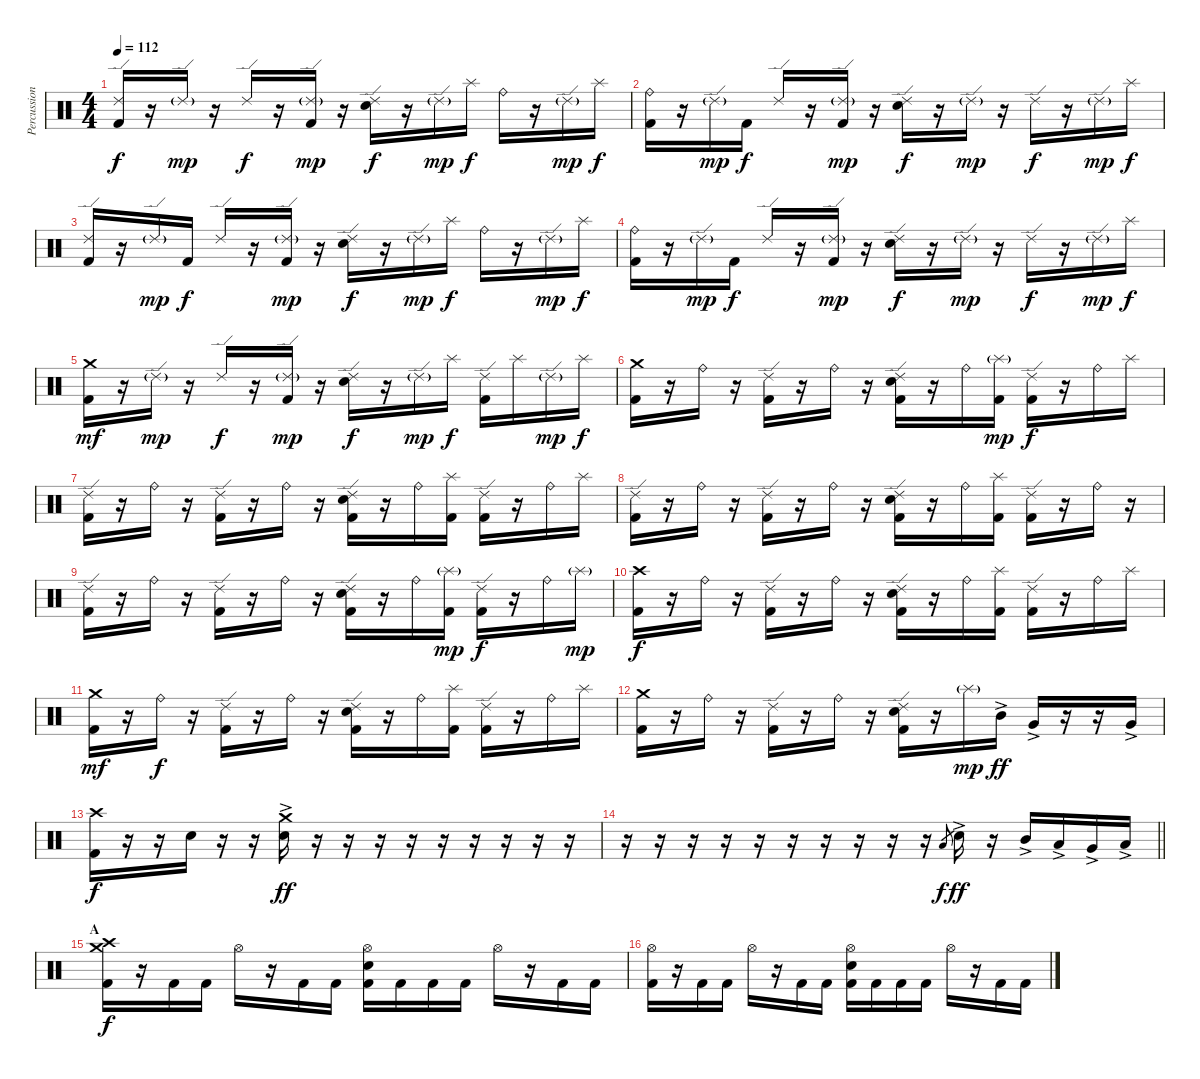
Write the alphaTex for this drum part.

\track ("Percussion" "Percussion") {instrument percussion}
\staff {score}
\articulation defaults
\ts (4 4)
\tempo 112
\clef neutral
\ks c
("Ride (edge) 2" "Kick (hit) 2").16{dy f} r.16 "Ride (edge) 2"{g}.16{dy mp} r.16 "Ride (edge) 2".16{dy f} r.16 ("Ride (edge) 2"{g} "Kick (hit) 2").16{dy mp} r.16 ("Ride (edge) 2" "Electric Snare (hit)").16{dy f} r.16 "Ride (edge) 2"{g}.16{dy mp} "Splash (hit)".16{dy f} "Ride (bell)".16 r.16 "Ride (edge) 2"{g}.16{dy mp} "Splash (hit)".16{dy f} |
("Ride (bell)" "Kick (hit) 2").16 r.16 "Ride (edge) 2"{g}.16{dy mp} "Kick (hit) 2".16{dy f} "Ride (edge) 2".16 r.16 ("Ride (edge) 2"{g} "Kick (hit) 2").16{dy mp} r.16 ("Ride (edge) 2" "Electric Snare (hit)").16{dy f} r.16 "Ride (edge) 2"{g}.16{dy mp} r.16 "Ride (edge) 2".16{dy f} r.16 "Ride (edge) 2"{g}.16{dy mp} "Splash (hit)".16{dy f} |
("Ride (edge) 2" "Kick (hit) 2").16 r.16 "Ride (edge) 2"{g}.16{dy mp} "Kick (hit) 2".16{dy f} "Ride (edge) 2".16 r.16 ("Ride (edge) 2"{g} "Kick (hit) 2").16{dy mp} r.16 ("Ride (edge) 2" "Electric Snare (hit)").16{dy f} r.16 "Ride (edge) 2"{g}.16{dy mp} "Splash (hit)".16{dy f} "Ride (bell)".16 r.16 "Ride (edge) 2"{g}.16{dy mp} "Splash (hit)".16{dy f} |
("Ride (bell)" "Kick (hit) 2").16 r.16 "Ride (edge) 2"{g}.16{dy mp} "Kick (hit) 2".16{dy f} "Ride (edge) 2".16 r.16 ("Ride (edge) 2"{g} "Kick (hit) 2").16{dy mp} r.16 ("Ride (edge) 2" "Electric Snare (hit)").16{dy f} r.16 "Ride (edge) 2"{g}.16{dy mp} r.16 "Ride (edge) 2".16{dy f} r.16 "Ride (edge) 2"{g}.16{dy mp} "Splash (hit)".16{dy f} |
("Crash medium (hit)" "Kick (hit) 2").16{dy mf} r.16 "Ride (edge) 2"{g}.16{dy mp} r.16 "Ride (edge) 2".16{dy f} r.16 ("Ride (edge) 2"{g} "Kick (hit) 2").16{dy mp} r.16 ("Ride (edge) 2" "Electric Snare (hit)").16{dy f} r.16 "Ride (edge) 2"{g}.16{dy mp} "Splash (hit)".16{dy f} ("Ride (edge) 2" "Kick (hit) 2").16 "Splash (hit)".16 "Ride (edge) 2"{g}.16{dy mp} "Splash (hit)".16{dy f} |
("Crash medium (hit)" "Kick (hit) 2").16 r.16 "Ride (bell)".16 r.16 ("Ride (edge) 2" "Kick (hit) 2").16 r.16 "Ride (bell)".16 r.16 ("Ride (edge) 2" "Electric Snare (hit)" "Kick (hit) 2").16 r.16 "Ride (bell)".16 ("Splash (hit)"{g} "Kick (hit) 2").16{dy mp} ("Ride (edge) 2" "Kick (hit) 2").16{dy f} r.16 "Ride (bell)".16 "Splash (hit)".16 |
("Ride (edge) 2" "Kick (hit) 2").16 r.16 "Ride (bell)".16 r.16 ("Ride (edge) 2" "Kick (hit) 2").16 r.16 "Ride (bell)".16 r.16 ("Ride (edge) 2" "Electric Snare (hit)" "Kick (hit) 2").16 r.16 "Ride (bell)".16 ("Splash (hit)" "Kick (hit) 2").16 ("Ride (edge) 2" "Kick (hit) 2").16 r.16 "Ride (bell)".16 "Splash (hit)".16 |
("Ride (edge) 2" "Kick (hit) 2").16 r.16 "Ride (bell)".16 r.16 ("Ride (edge) 2" "Kick (hit) 2").16 r.16 "Ride (bell)".16 r.16 ("Ride (edge) 2" "Electric Snare (hit)" "Kick (hit) 2").16 r.16 "Ride (bell)".16 ("Splash (hit)" "Kick (hit) 2").16 ("Ride (edge) 2" "Kick (hit) 2").16 r.16 "Ride (bell)".16 r.16 |
("Ride (edge) 2" "Kick (hit) 2").16 r.16 "Ride (bell)".16 r.16 ("Ride (edge) 2" "Kick (hit) 2").16 r.16 "Ride (bell)".16 r.16 ("Ride (edge) 2" "Electric Snare (hit)" "Kick (hit) 2").16 r.16 "Ride (bell)".16 ("Splash (hit)"{g} "Kick (hit) 2").16{dy mp} ("Ride (edge) 2" "Kick (hit) 2").16{dy f} r.16 "Ride (bell)".16 "Splash (hit)"{g}.16{dy mp} |
("Crash high (hit)" "Kick (hit) 2").16{dy f} r.16 "Ride (bell)".16 r.16 ("Ride (edge) 2" "Kick (hit) 2").16 r.16 "Ride (bell)".16 r.16 ("Ride (edge) 2" "Electric Snare (hit)" "Kick (hit) 2").16 r.16 "Ride (bell)".16 ("Splash (hit)" "Kick (hit) 2").16 ("Ride (edge) 2" "Kick (hit) 2").16 r.16 "Ride (bell)".16 "Splash (hit)".16 |
("Crash medium (hit)" "Kick (hit) 2").16{dy mf} r.16 "Ride (bell)".16{dy f} r.16 ("Ride (edge) 2" "Kick (hit) 2").16 r.16 "Ride (bell)".16 r.16 ("Ride (edge) 2" "Electric Snare (hit)" "Kick (hit) 2").16 r.16 "Ride (bell)".16 ("Splash (hit)" "Kick (hit) 2").16 ("Ride (edge) 2" "Kick (hit) 2").16 r.16 "Ride (bell)".16 "Splash (hit)".16 |
("Crash medium (hit)" "Kick (hit) 2").16 r.16 "Ride (bell)".16 r.16 ("Ride (edge) 2" "Kick (hit) 2").16 r.16 "Ride (bell)".16 r.16 ("Ride (edge) 2" "Electric Snare (hit)" "Kick (hit) 2").16 r.16 "Splash (hit)"{g}.16{dy mp} "Mid Tom (hit)"{ac}.16{dy ff} "Very Low Tom (hit)"{ac}.16 r.16 r.16 "Very Low Tom (hit)"{ac}.16 |
("Crash high (hit)" "Kick (hit) 2").16{dy f} r.16 r.16 "Electric Snare (hit)".16 r.16 r.16 ("Crash medium (hit)" "Electric Snare (hit)"{ac}).16{dy ff} r.16 r.16 r.16 r.16 r.16 r.16 r.16 r.16 r.16 |
\barLineRight lightlight
r.16 r.16 r.16 r.16 r.16 r.16 r.16 r.16 r.16 r.16 "Low Tom (hit)".8{gr dy f} "Electric Snare (hit)"{ac}.16{dy ff} r.16 "Mid Tom (hit)"{ac}.16 "Low Tom (hit)"{ac}.16 "Very Low Tom (hit)"{ac}.16 "Low Floor Tom (hit)"{ac}.16 |
\section ("" "A")
("Crash medium (hit)" "Crash high (hit)" "Kick (hit) 2").16{dy f} r.16 "Kick (hit) 2".16 "Kick (hit) 2".16 "Hi-Hat (open)".16 r.16 "Kick (hit) 2".16 "Kick (hit) 2".16 ("Hi-Hat (open)" "Electric Snare (hit)" "Kick (hit) 2").16 "Kick (hit) 2".16 "Kick (hit) 2".16 "Kick (hit) 2".16 "Hi-Hat (open)".16 r.16 "Kick (hit) 2".16 "Kick (hit) 2".16 |
("Hi-Hat (open)" "Kick (hit) 2").16 r.16 "Kick (hit) 2".16 "Kick (hit) 2".16 "Hi-Hat (open)".16 r.16 "Kick (hit) 2".16 "Kick (hit) 2".16 ("Hi-Hat (open)" "Electric Snare (hit)" "Kick (hit) 2").16 "Kick (hit) 2".16 "Kick (hit) 2".16 "Kick (hit) 2".16 "Hi-Hat (open)".16 r.16 "Kick (hit) 2".16 "Kick (hit) 2".16
